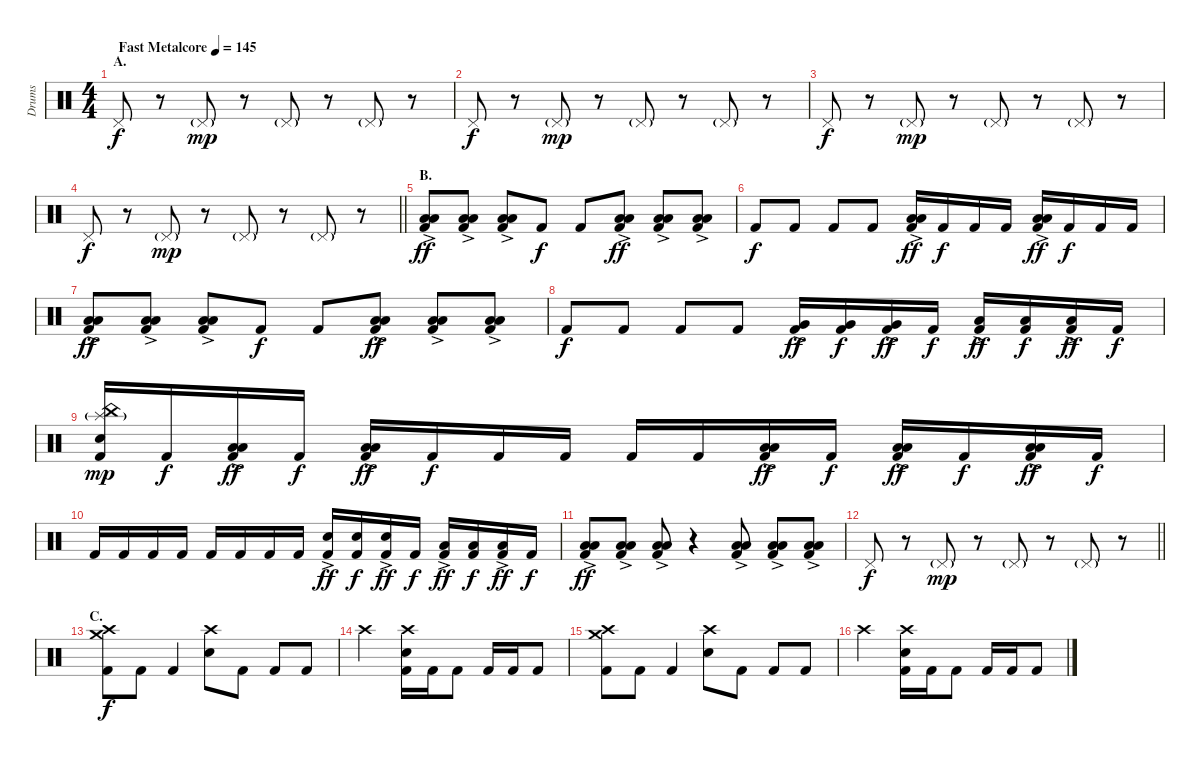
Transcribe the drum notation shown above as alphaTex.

\track ("Drums" "Drums") {instrument percussion}
\staff {score}
\articulation defaults
\ts (4 4)
\section ("" "A.")
\tempo (145 "Fast Metalcore")
\clef neutral
\ks c "Pedal Hi-Hat (hit)".8{dy f}
r.8 "Pedal Hi-Hat (hit)"{g}.8{dy mp} r.8 "Pedal Hi-Hat (hit)"{g}.8 r.8 "Pedal Hi-Hat (hit)"{g}.8 r.8 |
"Pedal Hi-Hat (hit)".8{dy f} r.8 "Pedal Hi-Hat (hit)"{g}.8{dy mp} r.8 "Pedal Hi-Hat (hit)"{g}.8 r.8 "Pedal Hi-Hat (hit)"{g}.8 r.8 |
"Pedal Hi-Hat (hit)".8{dy f} r.8 "Pedal Hi-Hat (hit)"{g}.8{dy mp} r.8 "Pedal Hi-Hat (hit)"{g}.8 r.8 "Pedal Hi-Hat (hit)"{g}.8 r.8 |
\barLineRight lightlight "Pedal Hi-Hat (hit)".8{dy f}
r.8 "Pedal Hi-Hat (hit)"{g}.8{dy mp} r.8 "Pedal Hi-Hat (hit)"{g}.8 r.8 "Pedal Hi-Hat (hit)"{g}.8 r.8 |
\section ("" "B.")
("Low Tom (hit)"{ac} "Low Floor Tom (hit)"{ac} "Kick (hit) 2").8{dy ff} ("Low Tom (hit)"{ac} "Low Floor Tom (hit)"{ac} "Kick (hit) 2").8 ("Low Tom (hit)"{ac} "Low Floor Tom (hit)"{ac} "Kick (hit) 2").8 "Kick (hit) 2".8{dy f} "Kick (hit) 2".8 ("Low Tom (hit)"{ac} "Low Floor Tom (hit)"{ac} "Kick (hit) 2").8{dy ff} ("Low Tom (hit)"{ac} "Low Floor Tom (hit)"{ac} "Kick (hit) 2").8 ("Low Tom (hit)"{ac} "Low Floor Tom (hit)"{ac} "Kick (hit) 2").8 |
"Kick (hit) 2".8{dy f} "Kick (hit) 2".8 "Kick (hit) 2".8 "Kick (hit) 2".8 ("Low Tom (hit)"{ac} "Low Floor Tom (hit)"{ac} "Kick (hit) 2").16{dy ff} "Kick (hit) 2".16{dy f} "Kick (hit) 2".16 "Kick (hit) 2".16 ("Low Tom (hit)"{ac} "Low Floor Tom (hit)"{ac} "Kick (hit) 2").16{dy ff} "Kick (hit) 2".16{dy f} "Kick (hit) 2".16 "Kick (hit) 2".16 |
("Low Tom (hit)"{ac} "Low Floor Tom (hit)"{ac} "Kick (hit) 2").8{dy ff} ("Low Tom (hit)"{ac} "Low Floor Tom (hit)"{ac} "Kick (hit) 2").8 ("Low Tom (hit)"{ac} "Low Floor Tom (hit)"{ac} "Kick (hit) 2").8 "Kick (hit) 2".8{dy f} "Kick (hit) 2".8 ("Low Tom (hit)"{ac} "Low Floor Tom (hit)"{ac} "Kick (hit) 2").8{dy ff} ("Low Tom (hit)"{ac} "Low Floor Tom (hit)"{ac} "Kick (hit) 2").8 ("Low Tom (hit)"{ac} "Low Floor Tom (hit)"{ac} "Kick (hit) 2").8 |
"Kick (hit) 2".8{dy f} "Kick (hit) 2".8 "Kick (hit) 2".8 "Kick (hit) 2".8 ("Very Low Tom (hit)"{ac} "Kick (hit) 2").16{dy ff} ("Very Low Tom (hit)" "Kick (hit) 2").16{dy f} ("Very Low Tom (hit)"{ac} "Kick (hit) 2").16{dy ff} "Kick (hit) 2".16{dy f} ("Low Floor Tom (hit)"{ac} "Kick (hit) 2").16{dy ff} ("Low Floor Tom (hit)" "Kick (hit) 2").16{dy f} ("Low Floor Tom (hit)"{ac} "Kick (hit) 2").16{dy ff} "Kick (hit) 2".16{dy f} |
("China (hit)" "Splash (hit)"{g} "Electric Snare (hit)" "Kick (hit) 2").16{dy mp} "Kick (hit) 2".16{dy f} ("Low Tom (hit)"{ac} "Low Floor Tom (hit)"{ac} "Kick (hit) 2").16{dy ff} "Kick (hit) 2".16{dy f} ("Low Tom (hit)"{ac} "Low Floor Tom (hit)"{ac} "Kick (hit) 2").16{dy ff} "Kick (hit) 2".16{dy f} "Kick (hit) 2".16 "Kick (hit) 2".16 "Kick (hit) 2".16 "Kick (hit) 2".16 ("Low Tom (hit)"{ac} "Low Floor Tom (hit)"{ac} "Kick (hit) 2").16{dy ff} "Kick (hit) 2".16{dy f} ("Low Tom (hit)"{ac} "Low Floor Tom (hit)"{ac} "Kick (hit) 2").16{dy ff} "Kick (hit) 2".16{dy f} ("Low Tom (hit)"{ac} "Low Floor Tom (hit)"{ac} "Kick (hit) 2").16{dy ff} "Kick (hit) 2".16{dy f} |
"Kick (hit) 2".16 "Kick (hit) 2".16 "Kick (hit) 2".16 "Kick (hit) 2".16 "Kick (hit) 2".16 "Kick (hit) 2".16 "Kick (hit) 2".16 "Kick (hit) 2".16 ("Electric Snare (hit)"{ac} "Kick (hit) 2").16{dy ff} ("Electric Snare (hit)" "Kick (hit) 2").16{dy f} ("Electric Snare (hit)"{ac} "Kick (hit) 2").16{dy ff} "Kick (hit) 2".16{dy f} ("Low Floor Tom (hit)"{ac} "Kick (hit) 2").16{dy ff} ("Low Floor Tom (hit)" "Kick (hit) 2").16{dy f} ("Low Floor Tom (hit)"{ac} "Kick (hit) 2").16{dy ff} "Kick (hit) 2".16{dy f} |
("Low Tom (hit)"{ac} "Low Floor Tom (hit)"{ac} "Kick (hit) 2").8{dy ff} ("Low Tom (hit)"{ac} "Low Floor Tom (hit)"{ac} "Kick (hit) 2").8 ("Low Tom (hit)"{ac} "Low Floor Tom (hit)"{ac} "Kick (hit) 2").8 r.4 ("Low Tom (hit)"{ac} "Low Floor Tom (hit)"{ac} "Kick (hit) 2").8 ("Low Tom (hit)"{ac} "Low Floor Tom (hit)"{ac} "Kick (hit) 2").8 ("Low Tom (hit)"{ac} "Low Floor Tom (hit)"{ac} "Kick (hit) 2").8 |
\barLineRight lightlight "Pedal Hi-Hat (hit)".8{dy f}
r.8 "Pedal Hi-Hat (hit)"{g}.8{dy mp} r.8 "Pedal Hi-Hat (hit)"{g}.8 r.8 "Pedal Hi-Hat (hit)"{g}.8 r.8 |
\section ("" "C.")
("Crash medium (hit)" "Crash high (hit)" "Kick (hit) 2").8{dy f} "Kick (hit) 2".8 "Kick (hit) 2".4 ("Crash high (hit)" "Electric Snare (hit)").8 "Kick (hit) 2".8 "Kick (hit) 2".8 "Kick (hit) 2".8 |
"Crash high (hit)".2 ("Crash high (hit)" "Electric Snare (hit)" "Kick (hit) 2").16 "Kick (hit) 2".16 "Kick (hit) 2".8 "Kick (hit) 2".16 "Kick (hit) 2".16 "Kick (hit) 2".8 |
("Crash medium (hit)" "Crash high (hit)" "Kick (hit) 2").8 "Kick (hit) 2".8 "Kick (hit) 2".4 ("Crash high (hit)" "Electric Snare (hit)").8 "Kick (hit) 2".8 "Kick (hit) 2".8 "Kick (hit) 2".8 |
"Crash high (hit)".2 ("Crash high (hit)" "Electric Snare (hit)" "Kick (hit) 2").16 "Kick (hit) 2".16 "Kick (hit) 2".8 "Kick (hit) 2".16 "Kick (hit) 2".16 "Kick (hit) 2".8
